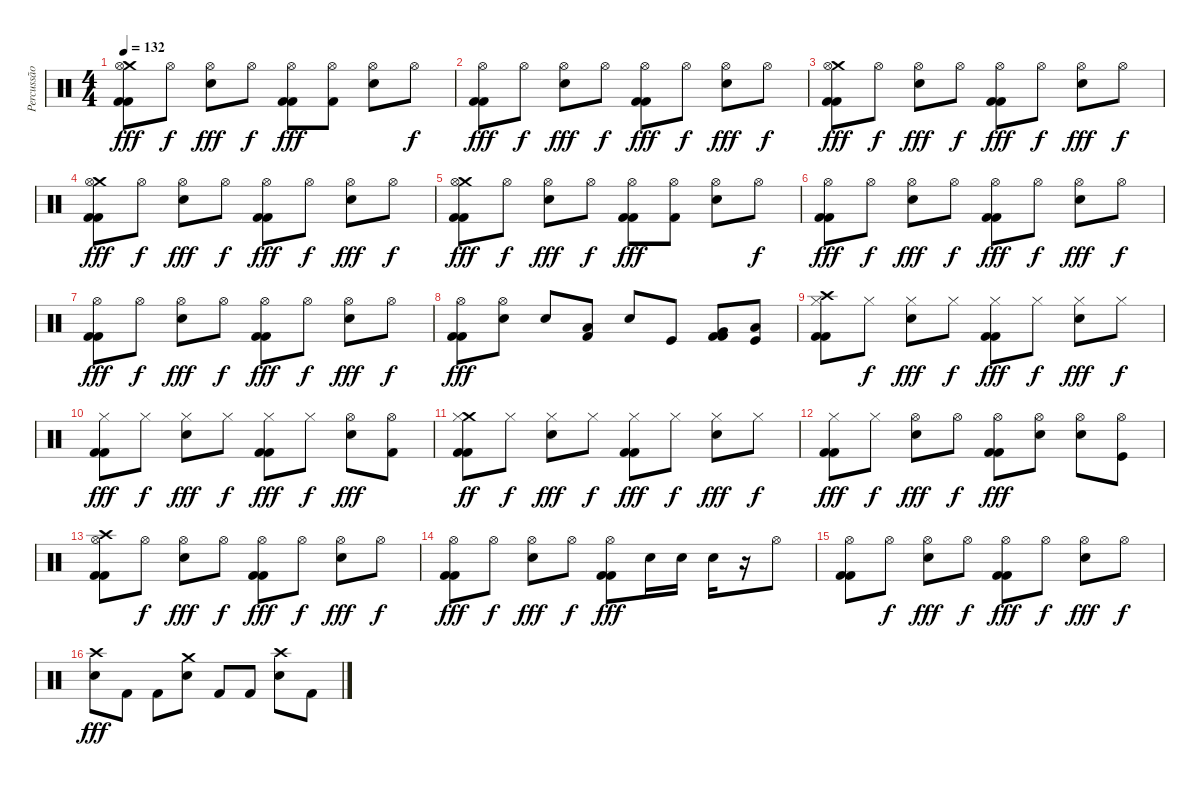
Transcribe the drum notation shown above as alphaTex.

\track ("Percussão" "Percussão") {instrument percussion}
\staff {score}
\articulation defaults
\ts (4 4)
\tempo 132
\clef neutral
\ks c
("Kick (hit) 2" "Kick (hit) 2" "Crash medium (hit)" "Hi-Hat (open)").8{dy fff} "Hi-Hat (open)".8{dy f} ("Electric Snare (hit)" "Hi-Hat (open)").8{dy fff} "Hi-Hat (open)".8{dy f} ("Kick (hit) 2" "Kick (hit) 2" "Hi-Hat (open)").8{dy fff} ("Kick (hit) 2" "Hi-Hat (open)").8 ("Electric Snare (hit)" "Hi-Hat (open)").8 "Hi-Hat (open)".8{dy f} |
("Kick (hit) 2" "Kick (hit) 2" "Hi-Hat (open)").8{dy fff} "Hi-Hat (open)".8{dy f} ("Electric Snare (hit)" "Hi-Hat (open)").8{dy fff} "Hi-Hat (open)".8{dy f} ("Kick (hit) 2" "Kick (hit) 2" "Hi-Hat (open)").8{dy fff} "Hi-Hat (open)".8{dy f} ("Electric Snare (hit)" "Hi-Hat (open)").8{dy fff} "Hi-Hat (open)".8{dy f} |
("Kick (hit) 2" "Kick (hit) 2" "Crash medium (hit)" "Hi-Hat (open)").8{dy fff} "Hi-Hat (open)".8{dy f} ("Electric Snare (hit)" "Hi-Hat (open)").8{dy fff} "Hi-Hat (open)".8{dy f} ("Kick (hit) 2" "Kick (hit) 2" "Hi-Hat (open)").8{dy fff} "Hi-Hat (open)".8{dy f} ("Electric Snare (hit)" "Hi-Hat (open)").8{dy fff} "Hi-Hat (open)".8{dy f} |
("Kick (hit) 2" "Kick (hit) 2" "Crash medium (hit)" "Hi-Hat (open)").8{dy fff} "Hi-Hat (open)".8{dy f} ("Electric Snare (hit)" "Hi-Hat (open)").8{dy fff} "Hi-Hat (open)".8{dy f} ("Kick (hit) 2" "Kick (hit) 2" "Hi-Hat (open)").8{dy fff} "Hi-Hat (open)".8{dy f} ("Electric Snare (hit)" "Hi-Hat (open)").8{dy fff} "Hi-Hat (open)".8{dy f} |
("Kick (hit) 2" "Kick (hit) 2" "Crash medium (hit)" "Hi-Hat (open)").8{dy fff} "Hi-Hat (open)".8{dy f} ("Electric Snare (hit)" "Hi-Hat (open)").8{dy fff} "Hi-Hat (open)".8{dy f} ("Kick (hit) 2" "Kick (hit) 2" "Hi-Hat (open)").8{dy fff} ("Kick (hit) 2" "Hi-Hat (open)").8 ("Electric Snare (hit)" "Hi-Hat (open)").8 "Hi-Hat (open)".8{dy f} |
("Kick (hit) 2" "Kick (hit) 2" "Hi-Hat (open)").8{dy fff} "Hi-Hat (open)".8{dy f} ("Electric Snare (hit)" "Hi-Hat (open)").8{dy fff} "Hi-Hat (open)".8{dy f} ("Kick (hit) 2" "Kick (hit) 2" "Hi-Hat (open)").8{dy fff} "Hi-Hat (open)".8{dy f} ("Electric Snare (hit)" "Hi-Hat (open)").8{dy fff} "Hi-Hat (open)".8{dy f} |
("Kick (hit) 2" "Kick (hit) 2" "Hi-Hat (open)").8{dy fff} "Hi-Hat (open)".8{dy f} ("Electric Snare (hit)" "Hi-Hat (open)").8{dy fff} "Hi-Hat (open)".8{dy f} ("Kick (hit) 2" "Kick (hit) 2" "Hi-Hat (open)").8{dy fff} "Hi-Hat (open)".8{dy f} ("Electric Snare (hit)" "Hi-Hat (open)").8{dy fff} "Hi-Hat (open)".8{dy f} |
("Kick (hit) 2" "Kick (hit) 2" "Hi-Hat (open)").8{dy fff} ("Electric Snare (hit)" "Hi-Hat (open)").8 "Electric Snare (hit)".8 ("Kick (hit) 2" "Low Floor Tom (hit)").8 "Electric Snare (hit)".8 "Kick (hit)".8 ("Kick (hit) 2" "Kick (hit) 2" "Very Low Tom (hit)").8 ("Kick (hit)" "Low Floor Tom (hit)").8 |
("Kick (hit) 2" "Kick (hit) 2" "Crash high (hit)" "Hi-Hat (closed)").8 "Hi-Hat (closed)".8{dy f} ("Electric Snare (hit)" "Hi-Hat (closed)").8{dy fff} "Hi-Hat (closed)".8{dy f} ("Kick (hit) 2" "Kick (hit) 2" "Hi-Hat (closed)").8{dy fff} "Hi-Hat (closed)".8{dy f} ("Electric Snare (hit)" "Hi-Hat (closed)").8{dy fff} "Hi-Hat (closed)".8{dy f} |
("Kick (hit) 2" "Kick (hit) 2" "Hi-Hat (closed)").8{dy fff} "Hi-Hat (closed)".8{dy f} ("Electric Snare (hit)" "Hi-Hat (closed)").8{dy fff} "Hi-Hat (closed)".8{dy f} ("Kick (hit) 2" "Kick (hit) 2" "Hi-Hat (closed)").8{dy fff} "Hi-Hat (closed)".8{dy f} ("Electric Snare (hit)" "Hi-Hat (open)").8{dy fff} ("Kick (hit) 2" "Hi-Hat (open)").8 |
("Kick (hit) 2" "Kick (hit) 2" "Crash medium (hit)" "Hi-Hat (closed)").8{dy ff} "Hi-Hat (closed)".8{dy f} ("Electric Snare (hit)" "Hi-Hat (closed)").8{dy fff} "Hi-Hat (closed)".8{dy f} ("Kick (hit) 2" "Kick (hit) 2" "Hi-Hat (closed)").8{dy fff} "Hi-Hat (closed)".8{dy f} ("Electric Snare (hit)" "Hi-Hat (closed)").8{dy fff} "Hi-Hat (closed)".8{dy f} |
("Kick (hit) 2" "Kick (hit) 2" "Hi-Hat (closed)").8{dy fff} "Hi-Hat (closed)".8{dy f} ("Electric Snare (hit)" "Hi-Hat (open)").8{dy fff} "Hi-Hat (open)".8{dy f} ("Kick (hit) 2" "Kick (hit) 2" "Hi-Hat (open)").8{dy fff} ("Electric Snare (hit)" "Hi-Hat (open)").8 ("Electric Snare (hit)" "Hi-Hat (open)").8 ("Kick (hit)" "Hi-Hat (open)").8 |
("Kick (hit) 2" "Kick (hit) 2" "Crash high (hit)" "Hi-Hat (open)").8 "Hi-Hat (open)".8{dy f} ("Electric Snare (hit)" "Hi-Hat (open)").8{dy fff} "Hi-Hat (open)".8{dy f} ("Kick (hit) 2" "Kick (hit) 2" "Hi-Hat (open)").8{dy fff} "Hi-Hat (open)".8{dy f} ("Electric Snare (hit)" "Hi-Hat (open)").8{dy fff} "Hi-Hat (open)".8{dy f} |
("Kick (hit) 2" "Kick (hit) 2" "Hi-Hat (open)").8{dy fff} "Hi-Hat (open)".8{dy f} ("Electric Snare (hit)" "Hi-Hat (open)").8{dy fff} "Hi-Hat (open)".8{dy f} ("Kick (hit) 2" "Kick (hit) 2" "Hi-Hat (open)").8{dy fff} "Electric Snare (hit)".16 "Electric Snare (hit)".16 "Electric Snare (hit)".16 r.16 "Hi-Hat (open)".8 |
("Kick (hit) 2" "Kick (hit) 2" "Hi-Hat (open)").8 "Hi-Hat (open)".8{dy f} ("Electric Snare (hit)" "Hi-Hat (open)").8{dy fff} "Hi-Hat (open)".8{dy f} ("Kick (hit) 2" "Kick (hit) 2" "Hi-Hat (open)").8{dy fff} "Hi-Hat (open)".8{dy f} ("Electric Snare (hit)" "Hi-Hat (open)").8{dy fff} "Hi-Hat (open)".8{dy f} |
("Electric Snare (hit)" "Crash high (hit)").8{dy fff} "Kick (hit) 2".8 "Kick (hit) 2".8 ("Electric Snare (hit)" "Crash medium (hit)").8 "Kick (hit) 2".8 "Kick (hit) 2".8 ("Electric Snare (hit)" "Crash high (hit)").8 "Kick (hit) 2".8
